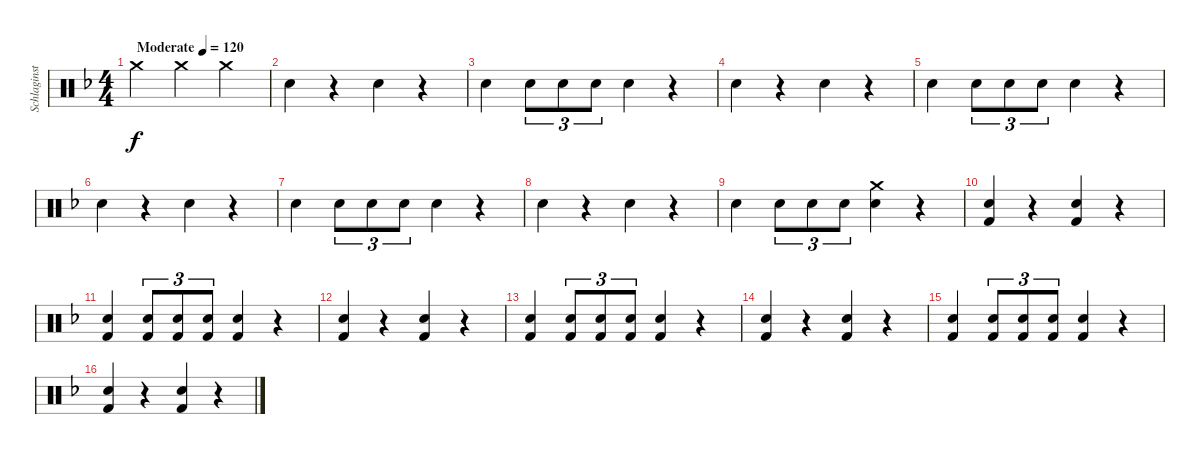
\track ("Schlaginstrumente - Auswahl" "Schlaginst") {instrument percussion}
\staff {score}
\articulation defaults
\ts (4 4)
\tempo (120 "Moderate")
\clef neutral
\ks f "Crash medium (hit)".4{dy f} "Crash medium (hit)".4 "Crash medium (hit)".4
|
"Electric Snare (hit)".4 r.4 "Electric Snare (hit)".4 r.4 |
"Electric Snare (hit)".4 "Electric Snare (hit)".8{tu (3 2)} "Electric Snare (hit)".8{tu (3 2)} "Electric Snare (hit)".8{tu (3 2)} "Electric Snare (hit)".4 r.4 |
"Electric Snare (hit)".4 r.4 "Electric Snare (hit)".4 r.4 |
"Electric Snare (hit)".4 "Electric Snare (hit)".8{tu (3 2)} "Electric Snare (hit)".8{tu (3 2)} "Electric Snare (hit)".8{tu (3 2)} "Electric Snare (hit)".4 r.4 |
"Electric Snare (hit)".4 r.4 "Electric Snare (hit)".4 r.4 |
"Electric Snare (hit)".4 "Electric Snare (hit)".8{tu (3 2)} "Electric Snare (hit)".8{tu (3 2)} "Electric Snare (hit)".8{tu (3 2)} "Electric Snare (hit)".4 r.4 |
"Electric Snare (hit)".4 r.4 "Electric Snare (hit)".4 r.4 |
"Electric Snare (hit)".4 "Electric Snare (hit)".8{tu (3 2)} "Electric Snare (hit)".8{tu (3 2)} "Electric Snare (hit)".8{tu (3 2)} ("Crash medium (hit)" "Electric Snare (hit)").4 r.4 |
("Electric Snare (hit)" "Kick (hit) 2").4 r.4 ("Electric Snare (hit)" "Kick (hit) 2").4 r.4 |
("Electric Snare (hit)" "Kick (hit) 2").4 ("Electric Snare (hit)" "Kick (hit) 2").8{tu (3 2)} ("Electric Snare (hit)" "Kick (hit) 2").8{tu (3 2)} ("Electric Snare (hit)" "Kick (hit) 2").8{tu (3 2)} ("Electric Snare (hit)" "Kick (hit) 2").4 r.4 |
("Electric Snare (hit)" "Kick (hit) 2").4 r.4 ("Electric Snare (hit)" "Kick (hit) 2").4 r.4 |
("Electric Snare (hit)" "Kick (hit) 2").4 ("Electric Snare (hit)" "Kick (hit) 2").8{tu (3 2)} ("Electric Snare (hit)" "Kick (hit) 2").8{tu (3 2)} ("Electric Snare (hit)" "Kick (hit) 2").8{tu (3 2)} ("Electric Snare (hit)" "Kick (hit) 2").4 r.4 |
("Electric Snare (hit)" "Kick (hit) 2").4 r.4 ("Electric Snare (hit)" "Kick (hit) 2").4 r.4 |
("Electric Snare (hit)" "Kick (hit) 2").4 ("Electric Snare (hit)" "Kick (hit) 2").8{tu (3 2)} ("Electric Snare (hit)" "Kick (hit) 2").8{tu (3 2)} ("Electric Snare (hit)" "Kick (hit) 2").8{tu (3 2)} ("Electric Snare (hit)" "Kick (hit) 2").4 r.4 |
("Electric Snare (hit)" "Kick (hit) 2").4 r.4 ("Electric Snare (hit)" "Kick (hit) 2").4 r.4
